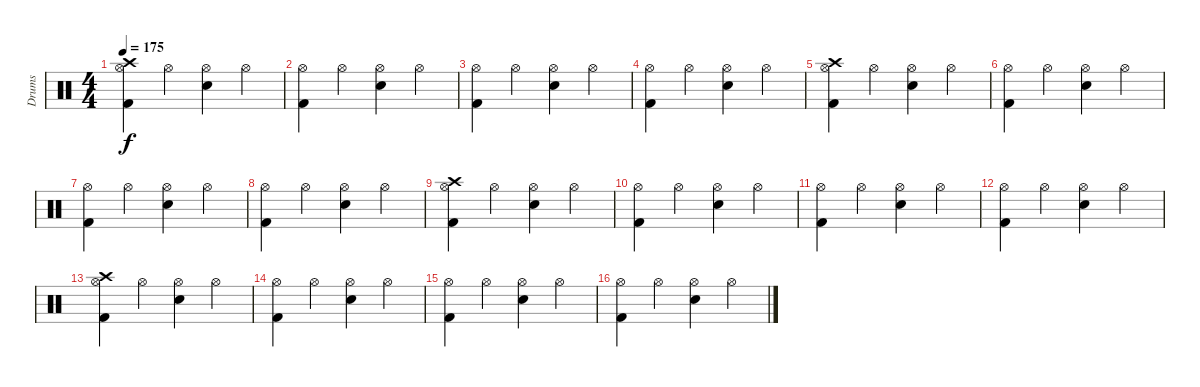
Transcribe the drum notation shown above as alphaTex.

\track ("Drums" "Drums") {instrument percussion}
\staff {score}
\articulation defaults
\ts (4 4)
\tempo 175
\clef neutral
\ks c
("Crash high (hit)" "Hi-Hat (open)" "Kick (hit) 2").4{dy f} "Hi-Hat (open)".4 ("Hi-Hat (open)" "Snare (hit) 2").4 "Hi-Hat (open)".4 |
("Hi-Hat (open)" "Kick (hit) 2").4 "Hi-Hat (open)".4 ("Hi-Hat (open)" "Snare (hit) 2").4 "Hi-Hat (open)".4 |
("Hi-Hat (open)" "Kick (hit) 2").4 "Hi-Hat (open)".4 ("Hi-Hat (open)" "Snare (hit) 2").4 "Hi-Hat (open)".4 |
("Hi-Hat (open)" "Kick (hit) 2").4 "Hi-Hat (open)".4 ("Hi-Hat (open)" "Snare (hit) 2").4 "Hi-Hat (open)".4 |
("Crash high (hit)" "Hi-Hat (open)" "Kick (hit) 2").4 "Hi-Hat (open)".4 ("Hi-Hat (open)" "Snare (hit) 2").4 "Hi-Hat (open)".4 |
("Hi-Hat (open)" "Kick (hit) 2").4 "Hi-Hat (open)".4 ("Hi-Hat (open)" "Snare (hit) 2").4 "Hi-Hat (open)".4 |
("Hi-Hat (open)" "Kick (hit) 2").4 "Hi-Hat (open)".4 ("Hi-Hat (open)" "Snare (hit) 2").4 "Hi-Hat (open)".4 |
("Hi-Hat (open)" "Kick (hit) 2").4 "Hi-Hat (open)".4 ("Hi-Hat (open)" "Snare (hit) 2").4 "Hi-Hat (open)".4 |
("Crash high (hit)" "Hi-Hat (open)" "Kick (hit) 2").4 "Hi-Hat (open)".4 ("Hi-Hat (open)" "Snare (hit) 2").4 "Hi-Hat (open)".4 |
("Hi-Hat (open)" "Kick (hit) 2").4 "Hi-Hat (open)".4 ("Hi-Hat (open)" "Snare (hit) 2").4 "Hi-Hat (open)".4 |
("Hi-Hat (open)" "Kick (hit) 2").4 "Hi-Hat (open)".4 ("Hi-Hat (open)" "Snare (hit) 2").4 "Hi-Hat (open)".4 |
("Hi-Hat (open)" "Kick (hit) 2").4 "Hi-Hat (open)".4 ("Hi-Hat (open)" "Snare (hit) 2").4 "Hi-Hat (open)".4 |
("Crash high (hit)" "Hi-Hat (open)" "Kick (hit) 2").4 "Hi-Hat (open)".4 ("Hi-Hat (open)" "Snare (hit) 2").4 "Hi-Hat (open)".4 |
("Hi-Hat (open)" "Kick (hit) 2").4 "Hi-Hat (open)".4 ("Hi-Hat (open)" "Snare (hit) 2").4 "Hi-Hat (open)".4 |
("Hi-Hat (open)" "Kick (hit) 2").4 "Hi-Hat (open)".4 ("Hi-Hat (open)" "Snare (hit) 2").4 "Hi-Hat (open)".4 |
("Hi-Hat (open)" "Kick (hit) 2").4 "Hi-Hat (open)".4 ("Hi-Hat (open)" "Snare (hit) 2").4 "Hi-Hat (open)".4
